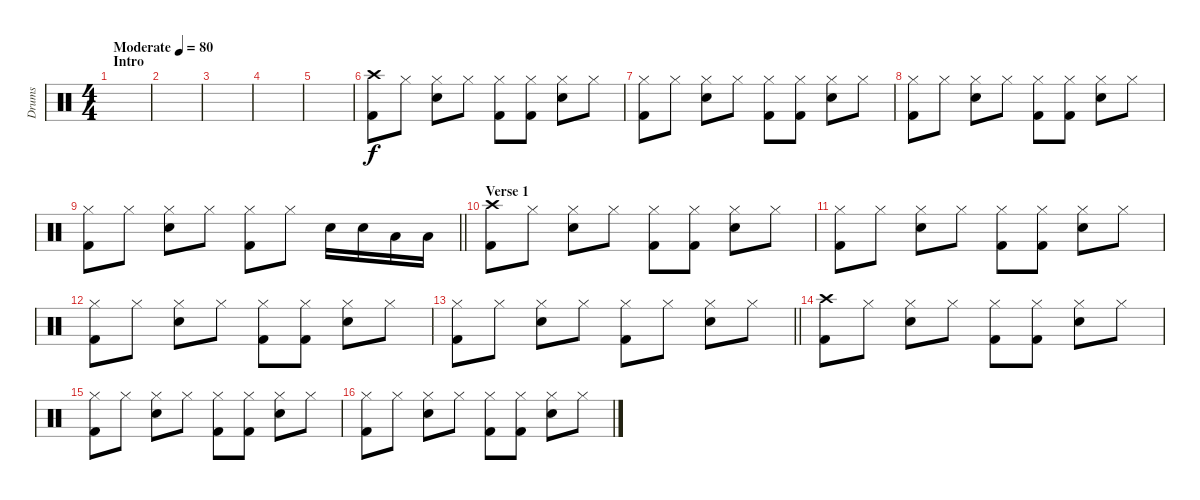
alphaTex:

\track ("Drums" "Drums") {instrument percussion}
\staff {score}
\articulation defaults
\ts (4 4)
\section ("" "Intro")
\tempo (80 "Moderate")
\clef neutral
\ks c
|
|
|
|
|
("Crash high (hit)" "Kick (hit) 2").8 "Hi-Hat (closed)".8 ("Hi-Hat (closed)" "Electric Snare (hit)").8 "Hi-Hat (closed)".8 ("Hi-Hat (closed)" "Kick (hit) 2").8 ("Hi-Hat (closed)" "Kick (hit) 2").8 ("Hi-Hat (closed)" "Electric Snare (hit)").8 "Hi-Hat (closed)".8 |
("Hi-Hat (closed)" "Kick (hit) 2").8 "Hi-Hat (closed)".8 ("Hi-Hat (closed)" "Electric Snare (hit)").8 "Hi-Hat (closed)".8 ("Hi-Hat (closed)" "Kick (hit) 2").8 ("Hi-Hat (closed)" "Kick (hit) 2").8 ("Hi-Hat (closed)" "Electric Snare (hit)").8 "Hi-Hat (closed)".8 |
("Hi-Hat (closed)" "Kick (hit) 2").8 "Hi-Hat (closed)".8 ("Hi-Hat (closed)" "Electric Snare (hit)").8 "Hi-Hat (closed)".8 ("Hi-Hat (closed)" "Kick (hit) 2").8 ("Hi-Hat (closed)" "Kick (hit) 2").8 ("Hi-Hat (closed)" "Electric Snare (hit)").8 "Hi-Hat (closed)".8 |
\barLineRight lightlight
("Hi-Hat (closed)" "Kick (hit) 2").8 "Hi-Hat (closed)".8 ("Hi-Hat (closed)" "Electric Snare (hit)").8 "Hi-Hat (closed)".8 ("Hi-Hat (closed)" "Kick (hit) 2").8 "Hi-Hat (closed)".8 "Electric Snare (hit)".16 "Electric Snare (hit)".16 "Low Tom (hit)".16 "Low Tom (hit)".16 |
\section ("" "Verse 1")
("Crash high (hit)" "Kick (hit) 2").8 "Hi-Hat (closed)".8 ("Hi-Hat (closed)" "Electric Snare (hit)").8 "Hi-Hat (closed)".8 ("Hi-Hat (closed)" "Kick (hit) 2").8 ("Hi-Hat (closed)" "Kick (hit) 2").8 ("Hi-Hat (closed)" "Electric Snare (hit)").8 "Hi-Hat (closed)".8 |
("Hi-Hat (closed)" "Kick (hit) 2").8 "Hi-Hat (closed)".8 ("Hi-Hat (closed)" "Electric Snare (hit)").8 "Hi-Hat (closed)".8 ("Hi-Hat (closed)" "Kick (hit) 2").8 ("Hi-Hat (closed)" "Kick (hit) 2").8 ("Hi-Hat (closed)" "Electric Snare (hit)").8 "Hi-Hat (closed)".8 |
("Hi-Hat (closed)" "Kick (hit) 2").8 "Hi-Hat (closed)".8 ("Hi-Hat (closed)" "Electric Snare (hit)").8 "Hi-Hat (closed)".8 ("Hi-Hat (closed)" "Kick (hit) 2").8 ("Hi-Hat (closed)" "Kick (hit) 2").8 ("Hi-Hat (closed)" "Electric Snare (hit)").8 "Hi-Hat (closed)".8 |
\barLineRight lightlight
("Hi-Hat (closed)" "Kick (hit) 2").8 "Hi-Hat (closed)".8 ("Hi-Hat (closed)" "Electric Snare (hit)").8 "Hi-Hat (closed)".8 ("Hi-Hat (closed)" "Kick (hit) 2").8 "Hi-Hat (closed)".8 ("Hi-Hat (closed)" "Electric Snare (hit)").8 "Hi-Hat (closed)".8 |
("Crash high (hit)" "Kick (hit) 2").8 "Hi-Hat (closed)".8 ("Hi-Hat (closed)" "Electric Snare (hit)").8 "Hi-Hat (closed)".8 ("Hi-Hat (closed)" "Kick (hit) 2").8 ("Hi-Hat (closed)" "Kick (hit) 2").8 ("Hi-Hat (closed)" "Electric Snare (hit)").8 "Hi-Hat (closed)".8 |
("Hi-Hat (closed)" "Kick (hit) 2").8 "Hi-Hat (closed)".8 ("Hi-Hat (closed)" "Electric Snare (hit)").8 "Hi-Hat (closed)".8 ("Hi-Hat (closed)" "Kick (hit) 2").8 ("Hi-Hat (closed)" "Kick (hit) 2").8 ("Hi-Hat (closed)" "Electric Snare (hit)").8 "Hi-Hat (closed)".8 |
("Hi-Hat (closed)" "Kick (hit) 2").8 "Hi-Hat (closed)".8 ("Hi-Hat (closed)" "Electric Snare (hit)").8 "Hi-Hat (closed)".8 ("Hi-Hat (closed)" "Kick (hit) 2").8 ("Hi-Hat (closed)" "Kick (hit) 2").8 ("Hi-Hat (closed)" "Electric Snare (hit)").8 "Hi-Hat (closed)".8
